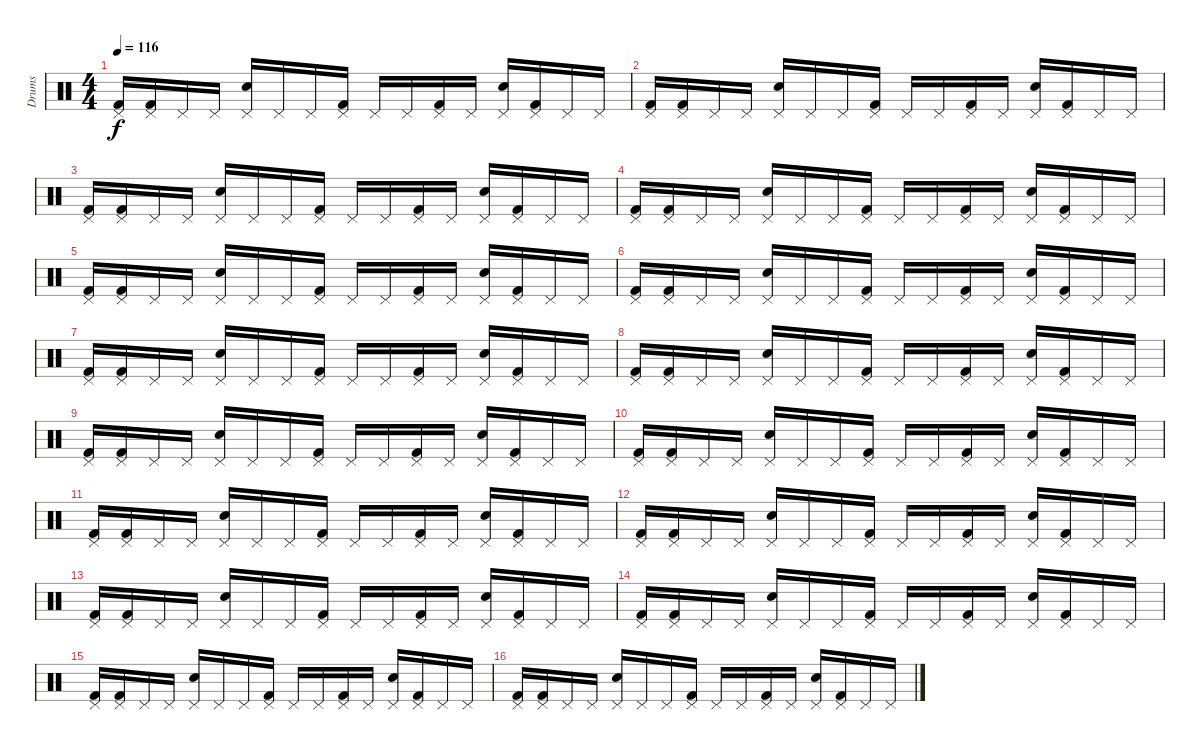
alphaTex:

\track ("Drums" "Drums") {instrument percussion}
\staff {score}
\articulation defaults
\ts (4 4)
\tempo 116
\clef neutral
\ks c
("Pedal Hi-Hat (hit)" "Kick (hit) 2").16{dy f} ("Kick (hit) 2" "Pedal Hi-Hat (hit)").16 "Pedal Hi-Hat (hit)".16 "Pedal Hi-Hat (hit)".16 ("Snare (hit) 2" "Pedal Hi-Hat (hit)").16 "Pedal Hi-Hat (hit)".16 "Pedal Hi-Hat (hit)".16 ("Pedal Hi-Hat (hit)" "Kick (hit) 2").16 "Pedal Hi-Hat (hit)".16 "Pedal Hi-Hat (hit)".16 ("Pedal Hi-Hat (hit)" "Kick (hit) 2").16 "Pedal Hi-Hat (hit)".16 ("Snare (hit) 2" "Pedal Hi-Hat (hit)").16 ("Pedal Hi-Hat (hit)" "Kick (hit) 2").16 "Pedal Hi-Hat (hit)".16 "Pedal Hi-Hat (hit)".16 |
("Kick (hit) 2" "Pedal Hi-Hat (hit)").16 ("Kick (hit) 2" "Pedal Hi-Hat (hit)").16 "Pedal Hi-Hat (hit)".16 "Pedal Hi-Hat (hit)".16 ("Pedal Hi-Hat (hit)" "Snare (hit) 2").16 "Pedal Hi-Hat (hit)".16 "Pedal Hi-Hat (hit)".16 ("Pedal Hi-Hat (hit)" "Kick (hit) 2").16 "Pedal Hi-Hat (hit)".16 "Pedal Hi-Hat (hit)".16 ("Kick (hit) 2" "Pedal Hi-Hat (hit)").16 "Pedal Hi-Hat (hit)".16 ("Pedal Hi-Hat (hit)" "Snare (hit) 2").16 ("Kick (hit) 2" "Pedal Hi-Hat (hit)").16 "Pedal Hi-Hat (hit)".16 "Pedal Hi-Hat (hit)".16 |
("Pedal Hi-Hat (hit)" "Kick (hit) 2").16 ("Kick (hit) 2" "Pedal Hi-Hat (hit)").16 "Pedal Hi-Hat (hit)".16 "Pedal Hi-Hat (hit)".16 ("Pedal Hi-Hat (hit)" "Snare (hit) 2").16 "Pedal Hi-Hat (hit)".16 "Pedal Hi-Hat (hit)".16 ("Pedal Hi-Hat (hit)" "Kick (hit) 2").16 "Pedal Hi-Hat (hit)".16 "Pedal Hi-Hat (hit)".16 ("Kick (hit) 2" "Pedal Hi-Hat (hit)").16 "Pedal Hi-Hat (hit)".16 ("Pedal Hi-Hat (hit)" "Snare (hit) 2").16 ("Kick (hit) 2" "Pedal Hi-Hat (hit)").16 "Pedal Hi-Hat (hit)".16 "Pedal Hi-Hat (hit)".16 |
("Kick (hit) 2" "Pedal Hi-Hat (hit)").16 ("Pedal Hi-Hat (hit)" "Kick (hit) 2").16 "Pedal Hi-Hat (hit)".16 "Pedal Hi-Hat (hit)".16 ("Pedal Hi-Hat (hit)" "Snare (hit) 2").16 "Pedal Hi-Hat (hit)".16 "Pedal Hi-Hat (hit)".16 ("Pedal Hi-Hat (hit)" "Kick (hit) 2").16 "Pedal Hi-Hat (hit)".16 "Pedal Hi-Hat (hit)".16 ("Pedal Hi-Hat (hit)" "Kick (hit) 2").16 "Pedal Hi-Hat (hit)".16 ("Pedal Hi-Hat (hit)" "Snare (hit) 2").16 ("Kick (hit) 2" "Pedal Hi-Hat (hit)").16 "Pedal Hi-Hat (hit)".16 "Pedal Hi-Hat (hit)".16 |
("Kick (hit) 2" "Pedal Hi-Hat (hit)").16 ("Pedal Hi-Hat (hit)" "Kick (hit) 2").16 "Pedal Hi-Hat (hit)".16 "Pedal Hi-Hat (hit)".16 ("Snare (hit) 2" "Pedal Hi-Hat (hit)").16 "Pedal Hi-Hat (hit)".16 "Pedal Hi-Hat (hit)".16 ("Kick (hit) 2" "Pedal Hi-Hat (hit)").16 "Pedal Hi-Hat (hit)".16 "Pedal Hi-Hat (hit)".16 ("Pedal Hi-Hat (hit)" "Kick (hit) 2").16 "Pedal Hi-Hat (hit)".16 ("Pedal Hi-Hat (hit)" "Snare (hit) 2").16 ("Pedal Hi-Hat (hit)" "Kick (hit) 2").16 "Pedal Hi-Hat (hit)".16 "Pedal Hi-Hat (hit)".16 |
("Kick (hit) 2" "Pedal Hi-Hat (hit)").16 ("Kick (hit) 2" "Pedal Hi-Hat (hit)").16 "Pedal Hi-Hat (hit)".16 "Pedal Hi-Hat (hit)".16 ("Snare (hit) 2" "Pedal Hi-Hat (hit)").16 "Pedal Hi-Hat (hit)".16 "Pedal Hi-Hat (hit)".16 ("Pedal Hi-Hat (hit)" "Kick (hit) 2").16 "Pedal Hi-Hat (hit)".16 "Pedal Hi-Hat (hit)".16 ("Kick (hit) 2" "Pedal Hi-Hat (hit)").16 "Pedal Hi-Hat (hit)".16 ("Pedal Hi-Hat (hit)" "Snare (hit) 2").16 ("Kick (hit) 2" "Pedal Hi-Hat (hit)").16 "Pedal Hi-Hat (hit)".16 "Pedal Hi-Hat (hit)".16 |
("Pedal Hi-Hat (hit)" "Kick (hit) 2").16 ("Pedal Hi-Hat (hit)" "Kick (hit) 2").16 "Pedal Hi-Hat (hit)".16 "Pedal Hi-Hat (hit)".16 ("Pedal Hi-Hat (hit)" "Snare (hit) 2").16 "Pedal Hi-Hat (hit)".16 "Pedal Hi-Hat (hit)".16 ("Kick (hit) 2" "Pedal Hi-Hat (hit)").16 "Pedal Hi-Hat (hit)".16 "Pedal Hi-Hat (hit)".16 ("Kick (hit) 2" "Pedal Hi-Hat (hit)").16 "Pedal Hi-Hat (hit)".16 ("Snare (hit) 2" "Pedal Hi-Hat (hit)").16 ("Kick (hit) 2" "Pedal Hi-Hat (hit)").16 "Pedal Hi-Hat (hit)".16 "Pedal Hi-Hat (hit)".16 |
("Kick (hit) 2" "Pedal Hi-Hat (hit)").16 ("Kick (hit) 2" "Pedal Hi-Hat (hit)").16 "Pedal Hi-Hat (hit)".16 "Pedal Hi-Hat (hit)".16 ("Pedal Hi-Hat (hit)" "Snare (hit) 2").16 "Pedal Hi-Hat (hit)".16 "Pedal Hi-Hat (hit)".16 ("Pedal Hi-Hat (hit)" "Kick (hit) 2").16 "Pedal Hi-Hat (hit)".16 "Pedal Hi-Hat (hit)".16 ("Kick (hit) 2" "Pedal Hi-Hat (hit)").16 "Pedal Hi-Hat (hit)".16 ("Pedal Hi-Hat (hit)" "Snare (hit) 2").16 ("Pedal Hi-Hat (hit)" "Kick (hit) 2").16 "Pedal Hi-Hat (hit)".16 "Pedal Hi-Hat (hit)".16 |
("Pedal Hi-Hat (hit)" "Kick (hit) 2").16 ("Pedal Hi-Hat (hit)" "Kick (hit) 2").16 "Pedal Hi-Hat (hit)".16 "Pedal Hi-Hat (hit)".16 ("Pedal Hi-Hat (hit)" "Snare (hit) 2").16 "Pedal Hi-Hat (hit)".16 "Pedal Hi-Hat (hit)".16 ("Kick (hit) 2" "Pedal Hi-Hat (hit)").16 "Pedal Hi-Hat (hit)".16 "Pedal Hi-Hat (hit)".16 ("Kick (hit) 2" "Pedal Hi-Hat (hit)").16 "Pedal Hi-Hat (hit)".16 ("Snare (hit) 2" "Pedal Hi-Hat (hit)").16 ("Pedal Hi-Hat (hit)" "Kick (hit) 2").16 "Pedal Hi-Hat (hit)".16 "Pedal Hi-Hat (hit)".16 |
("Pedal Hi-Hat (hit)" "Kick (hit) 2").16 ("Pedal Hi-Hat (hit)" "Kick (hit) 2").16 "Pedal Hi-Hat (hit)".16 "Pedal Hi-Hat (hit)".16 ("Pedal Hi-Hat (hit)" "Snare (hit) 2").16 "Pedal Hi-Hat (hit)".16 "Pedal Hi-Hat (hit)".16 ("Pedal Hi-Hat (hit)" "Kick (hit) 2").16 "Pedal Hi-Hat (hit)".16 "Pedal Hi-Hat (hit)".16 ("Kick (hit) 2" "Pedal Hi-Hat (hit)").16 "Pedal Hi-Hat (hit)".16 ("Pedal Hi-Hat (hit)" "Snare (hit) 2").16 ("Kick (hit) 2" "Pedal Hi-Hat (hit)").16 "Pedal Hi-Hat (hit)".16 "Pedal Hi-Hat (hit)".16 |
("Kick (hit) 2" "Pedal Hi-Hat (hit)").16 ("Pedal Hi-Hat (hit)" "Kick (hit) 2").16 "Pedal Hi-Hat (hit)".16 "Pedal Hi-Hat (hit)".16 ("Pedal Hi-Hat (hit)" "Snare (hit) 2").16 "Pedal Hi-Hat (hit)".16 "Pedal Hi-Hat (hit)".16 ("Pedal Hi-Hat (hit)" "Kick (hit) 2").16 "Pedal Hi-Hat (hit)".16 "Pedal Hi-Hat (hit)".16 ("Pedal Hi-Hat (hit)" "Kick (hit) 2").16 "Pedal Hi-Hat (hit)".16 ("Snare (hit) 2" "Pedal Hi-Hat (hit)").16 ("Pedal Hi-Hat (hit)" "Kick (hit) 2").16 "Pedal Hi-Hat (hit)".16 "Pedal Hi-Hat (hit)".16 |
("Pedal Hi-Hat (hit)" "Kick (hit) 2").16 ("Pedal Hi-Hat (hit)" "Kick (hit) 2").16 "Pedal Hi-Hat (hit)".16 "Pedal Hi-Hat (hit)".16 ("Pedal Hi-Hat (hit)" "Snare (hit) 2").16 "Pedal Hi-Hat (hit)".16 "Pedal Hi-Hat (hit)".16 ("Pedal Hi-Hat (hit)" "Kick (hit) 2").16 "Pedal Hi-Hat (hit)".16 "Pedal Hi-Hat (hit)".16 ("Pedal Hi-Hat (hit)" "Kick (hit) 2").16 "Pedal Hi-Hat (hit)".16 ("Snare (hit) 2" "Pedal Hi-Hat (hit)").16 ("Kick (hit) 2" "Pedal Hi-Hat (hit)").16 "Pedal Hi-Hat (hit)".16 "Pedal Hi-Hat (hit)".16 |
("Kick (hit) 2" "Pedal Hi-Hat (hit)").16 ("Pedal Hi-Hat (hit)" "Kick (hit) 2").16 "Pedal Hi-Hat (hit)".16 "Pedal Hi-Hat (hit)".16 ("Snare (hit) 2" "Pedal Hi-Hat (hit)").16 "Pedal Hi-Hat (hit)".16 "Pedal Hi-Hat (hit)".16 ("Kick (hit) 2" "Pedal Hi-Hat (hit)").16 "Pedal Hi-Hat (hit)".16 "Pedal Hi-Hat (hit)".16 ("Pedal Hi-Hat (hit)" "Kick (hit) 2").16 "Pedal Hi-Hat (hit)".16 ("Pedal Hi-Hat (hit)" "Snare (hit) 2").16 ("Kick (hit) 2" "Pedal Hi-Hat (hit)").16 "Pedal Hi-Hat (hit)".16 "Pedal Hi-Hat (hit)".16 |
("Kick (hit) 2" "Pedal Hi-Hat (hit)").16 ("Kick (hit) 2" "Pedal Hi-Hat (hit)").16 "Pedal Hi-Hat (hit)".16 "Pedal Hi-Hat (hit)".16 ("Snare (hit) 2" "Pedal Hi-Hat (hit)").16 "Pedal Hi-Hat (hit)".16 "Pedal Hi-Hat (hit)".16 ("Pedal Hi-Hat (hit)" "Kick (hit) 2").16 "Pedal Hi-Hat (hit)".16 "Pedal Hi-Hat (hit)".16 ("Kick (hit) 2" "Pedal Hi-Hat (hit)").16 "Pedal Hi-Hat (hit)".16 ("Snare (hit) 2" "Pedal Hi-Hat (hit)").16 ("Pedal Hi-Hat (hit)" "Kick (hit) 2").16 "Pedal Hi-Hat (hit)".16 "Pedal Hi-Hat (hit)".16 |
("Kick (hit) 2" "Pedal Hi-Hat (hit)").16 ("Kick (hit) 2" "Pedal Hi-Hat (hit)").16 "Pedal Hi-Hat (hit)".16 "Pedal Hi-Hat (hit)".16 ("Pedal Hi-Hat (hit)" "Snare (hit) 2").16 "Pedal Hi-Hat (hit)".16 "Pedal Hi-Hat (hit)".16 ("Pedal Hi-Hat (hit)" "Kick (hit) 2").16 "Pedal Hi-Hat (hit)".16 "Pedal Hi-Hat (hit)".16 ("Pedal Hi-Hat (hit)" "Kick (hit) 2").16 "Pedal Hi-Hat (hit)".16 ("Snare (hit) 2" "Pedal Hi-Hat (hit)").16 ("Kick (hit) 2" "Pedal Hi-Hat (hit)").16 "Pedal Hi-Hat (hit)".16 "Pedal Hi-Hat (hit)".16 |
("Pedal Hi-Hat (hit)" "Kick (hit) 2").16 ("Kick (hit) 2" "Pedal Hi-Hat (hit)").16 "Pedal Hi-Hat (hit)".16 "Pedal Hi-Hat (hit)".16 ("Pedal Hi-Hat (hit)" "Snare (hit) 2").16 "Pedal Hi-Hat (hit)".16 "Pedal Hi-Hat (hit)".16 ("Pedal Hi-Hat (hit)" "Kick (hit) 2").16 "Pedal Hi-Hat (hit)".16 "Pedal Hi-Hat (hit)".16 ("Pedal Hi-Hat (hit)" "Kick (hit) 2").16 "Pedal Hi-Hat (hit)".16 ("Snare (hit) 2" "Pedal Hi-Hat (hit)").16 ("Pedal Hi-Hat (hit)" "Kick (hit) 2").16 "Pedal Hi-Hat (hit)".16 "Pedal Hi-Hat (hit)".16
